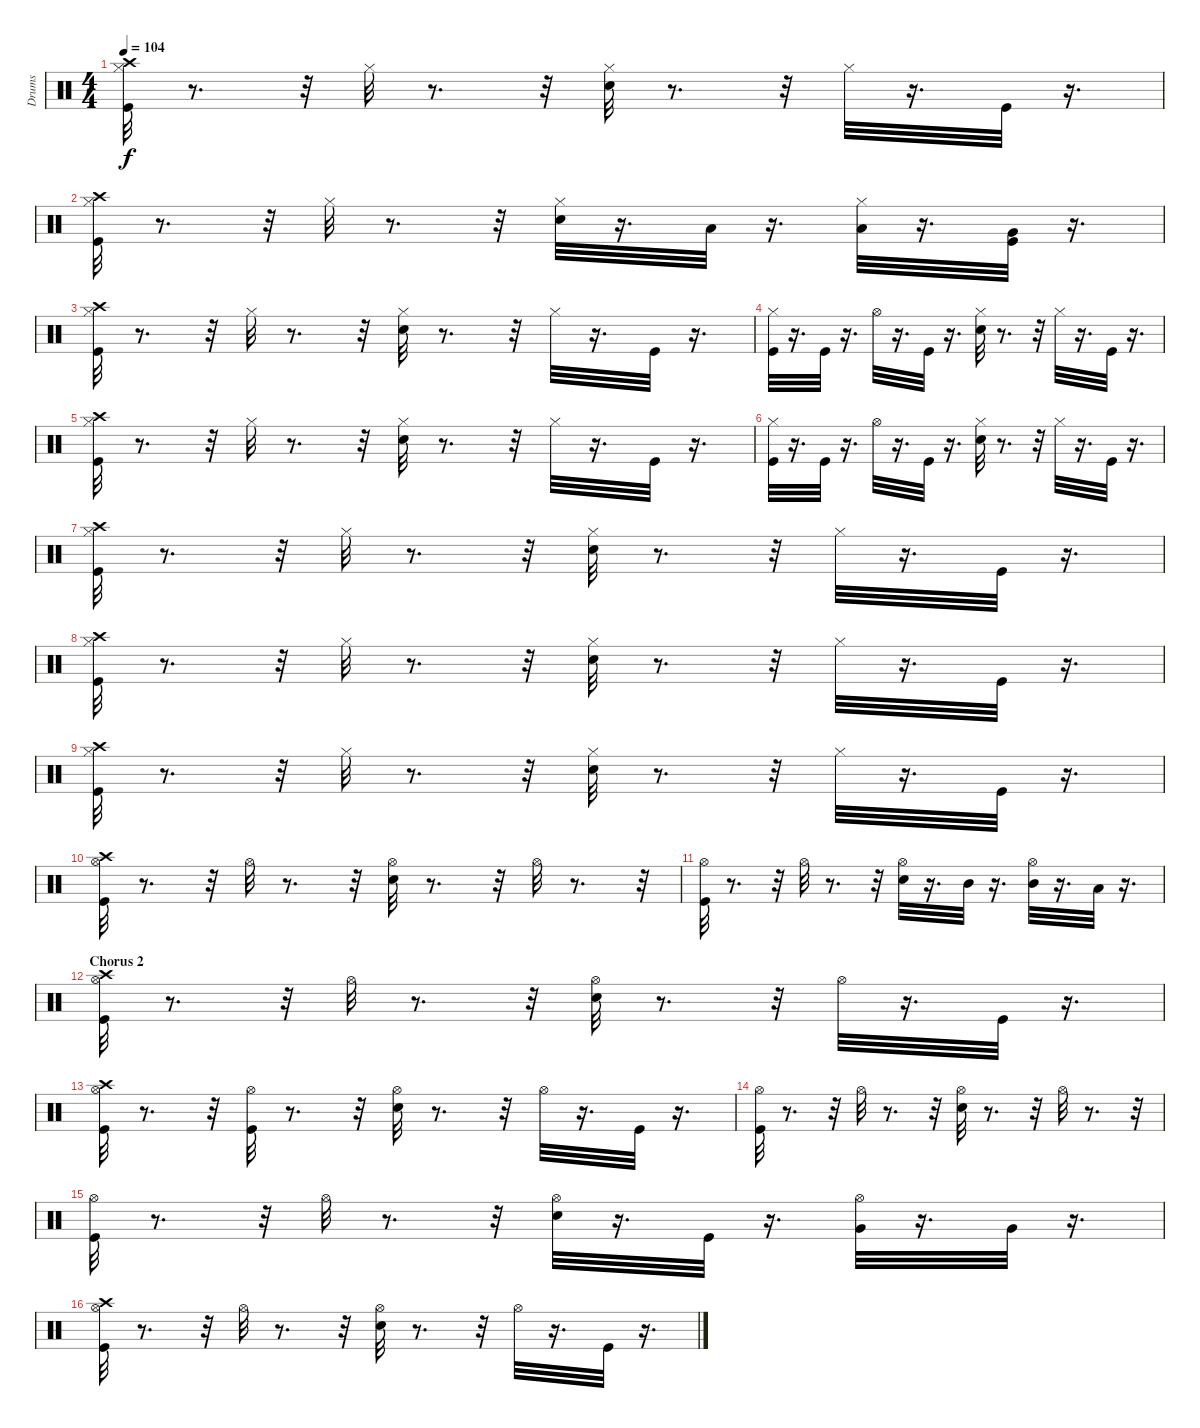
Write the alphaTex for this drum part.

\track ("Drums" "Drums") {instrument percussion}
\staff {score}
\articulation defaults
\ts (4 4)
\tempo 104
\clef neutral
\ks c
("Hi-Hat (closed)" "Crash high (hit)" "Kick (hit)").32{dy f} r.8{d} r.32 "Hi-Hat (closed)".32 r.8{d} r.32 ("Electric Snare (hit)" "Hi-Hat (closed)").32 r.8{d} r.32 "Hi-Hat (closed)".32 r.16{d} "Kick (hit)".32 r.16{d} |
("Hi-Hat (closed)" "Crash high (hit)" "Kick (hit)").32 r.8{d} r.32 "Hi-Hat (closed)".32 r.8{d} r.32 ("Electric Snare (hit)" "Hi-Hat (closed)").32 r.16{d} "Low Tom (hit)".32 r.16{d} ("Low Tom (hit)" "Hi-Hat (closed)").32 r.16{d} ("Kick (hit)" "Very Low Tom (hit)").32 r.16{d} |
("Hi-Hat (closed)" "Crash high (hit)" "Kick (hit)").32 r.8{d} r.32 "Hi-Hat (closed)".32 r.8{d} r.32 ("Electric Snare (hit)" "Hi-Hat (closed)").32 r.8{d} r.32 "Hi-Hat (closed)".32 r.16{d} "Kick (hit)".32 r.16{d} |
("Hi-Hat (closed)" "Kick (hit)").32 r.16{d} "Kick (hit)".32 r.16{d} "Hi-Hat (open)".32 r.16{d} "Kick (hit)".32 r.16{d} ("Hi-Hat (closed)" "Electric Snare (hit)").32 r.8{d} r.32 "Hi-Hat (closed)".32 r.16{d} "Kick (hit)".32 r.16{d} |
("Hi-Hat (closed)" "Crash high (hit)" "Kick (hit)").32 r.8{d} r.32 "Hi-Hat (closed)".32 r.8{d} r.32 ("Electric Snare (hit)" "Hi-Hat (closed)").32 r.8{d} r.32 "Hi-Hat (closed)".32 r.16{d} "Kick (hit)".32 r.16{d} |
("Hi-Hat (closed)" "Kick (hit)").32 r.16{d} "Kick (hit)".32 r.16{d} "Hi-Hat (open)".32 r.16{d} "Kick (hit)".32 r.16{d} ("Hi-Hat (closed)" "Electric Snare (hit)").32 r.8{d} r.32 "Hi-Hat (closed)".32 r.16{d} "Kick (hit)".32 r.16{d} |
("Hi-Hat (closed)" "Crash high (hit)" "Kick (hit)").32 r.8{d} r.32 "Hi-Hat (closed)".32 r.8{d} r.32 ("Electric Snare (hit)" "Hi-Hat (closed)").32 r.8{d} r.32 "Hi-Hat (closed)".32 r.16{d} "Kick (hit)".32 r.16{d} |
("Hi-Hat (closed)" "Crash high (hit)" "Kick (hit)").32 r.8{d} r.32 "Hi-Hat (closed)".32 r.8{d} r.32 ("Electric Snare (hit)" "Hi-Hat (closed)").32 r.8{d} r.32 "Hi-Hat (closed)".32 r.16{d} "Kick (hit)".32 r.16{d} |
("Hi-Hat (closed)" "Crash high (hit)" "Kick (hit)").32 r.8{d} r.32 "Hi-Hat (closed)".32 r.8{d} r.32 ("Electric Snare (hit)" "Hi-Hat (closed)").32 r.8{d} r.32 "Hi-Hat (closed)".32 r.16{d} "Kick (hit)".32 r.16{d} |
("Hi-Hat (open)" "Crash high (hit)" "Kick (hit)").32 r.8{d} r.32 "Hi-Hat (open)".32 r.8{d} r.32 ("Hi-Hat (open)" "Electric Snare (hit)").32 r.8{d} r.32 "Hi-Hat (open)".32 r.8{d} r.32 |
("Hi-Hat (open)" "Kick (hit)").32 r.8{d} r.32 "Hi-Hat (open)".32 r.8{d} r.32 ("Hi-Hat (open)" "Electric Snare (hit)").32 r.16{d} "Mid Tom (hit)".32 r.16{d} ("Mid Tom (hit)" "Hi-Hat (open)").32 r.16{d} "Low Tom (hit)".32 r.16{d} |
\section ("" "Chorus 2")
("Crash high (hit)" "Hi-Hat (open)" "Kick (hit)").32 r.8{d} r.32 "Hi-Hat (open)".32 r.8{d} r.32 ("Hi-Hat (open)" "Electric Snare (hit)").32 r.8{d} r.32 "Hi-Hat (open)".32 r.16{d} "Kick (hit)".32 r.16{d} |
("Crash high (hit)" "Hi-Hat (open)" "Kick (hit)").32 r.8{d} r.32 ("Kick (hit)" "Hi-Hat (open)").32 r.8{d} r.32 ("Hi-Hat (open)" "Electric Snare (hit)").32 r.8{d} r.32 "Hi-Hat (open)".32 r.16{d} "Kick (hit)".32 r.16{d} |
("Hi-Hat (open)" "Kick (hit)").32 r.8{d} r.32 "Hi-Hat (open)".32 r.8{d} r.32 ("Electric Snare (hit)" "Hi-Hat (open)").32 r.8{d} r.32 "Hi-Hat (open)".32 r.8{d} r.32 |
("Hi-Hat (open)" "Kick (hit)").32 r.8{d} r.32 "Hi-Hat (open)".32 r.8{d} r.32 ("Hi-Hat (open)" "Electric Snare (hit)").32 r.16{d} "Kick (hit)".32 r.16{d} ("Very Low Tom (hit)" "Hi-Hat (open)").32 r.16{d} "Very Low Tom (hit)".32 r.16{d} |
("Crash high (hit)" "Hi-Hat (open)" "Kick (hit)").32 r.8{d} r.32 "Hi-Hat (open)".32 r.8{d} r.32 ("Hi-Hat (open)" "Electric Snare (hit)").32 r.8{d} r.32 "Hi-Hat (open)".32 r.16{d} "Kick (hit)".32 r.16{d}
